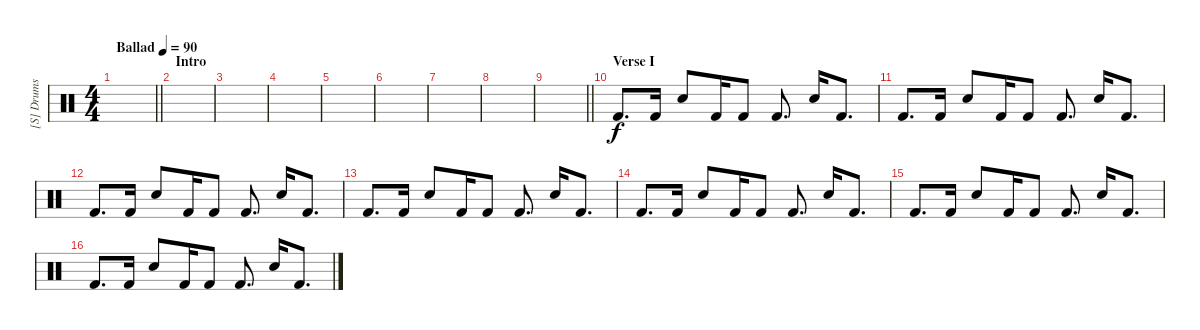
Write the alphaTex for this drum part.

\track ("[S] Drums I (Stewart)" "[S] Drums ") {instrument percussion}
\staff {score}
\articulation defaults
\ts (4 4)
\tempo (90 "Ballad")
\clef neutral
\barLineRight lightlight
\ks c
|
\section ("" "Intro")
|
|
|
|
|
|
|
\barLineRight lightlight
|
\section ("" "Verse I")
"Kick (hit) 2".8{d} "Kick (hit) 2".16 "Snare (hit) 2".8 "Kick (hit) 2".16 "Kick (hit) 2".8 "Kick (hit) 2".8{d} "Snare (hit) 2".16 "Kick (hit) 2".8{d} |
"Kick (hit) 2".8{d} "Kick (hit) 2".16 "Snare (hit) 2".8 "Kick (hit) 2".16 "Kick (hit) 2".8 "Kick (hit) 2".8{d} "Snare (hit) 2".16 "Kick (hit) 2".8{d} |
"Kick (hit) 2".8{d} "Kick (hit) 2".16 "Snare (hit) 2".8 "Kick (hit) 2".16 "Kick (hit) 2".8 "Kick (hit) 2".8{d} "Snare (hit) 2".16 "Kick (hit) 2".8{d} |
"Kick (hit) 2".8{d} "Kick (hit) 2".16 "Snare (hit) 2".8 "Kick (hit) 2".16 "Kick (hit) 2".8 "Kick (hit) 2".8{d} "Snare (hit) 2".16 "Kick (hit) 2".8{d} |
"Kick (hit) 2".8{d} "Kick (hit) 2".16 "Snare (hit) 2".8 "Kick (hit) 2".16 "Kick (hit) 2".8 "Kick (hit) 2".8{d} "Snare (hit) 2".16 "Kick (hit) 2".8{d} |
"Kick (hit) 2".8{d} "Kick (hit) 2".16 "Snare (hit) 2".8 "Kick (hit) 2".16 "Kick (hit) 2".8 "Kick (hit) 2".8{d} "Snare (hit) 2".16 "Kick (hit) 2".8{d} |
"Kick (hit) 2".8{d} "Kick (hit) 2".16 "Snare (hit) 2".8 "Kick (hit) 2".16 "Kick (hit) 2".8 "Kick (hit) 2".8{d} "Snare (hit) 2".16 "Kick (hit) 2".8{d}
